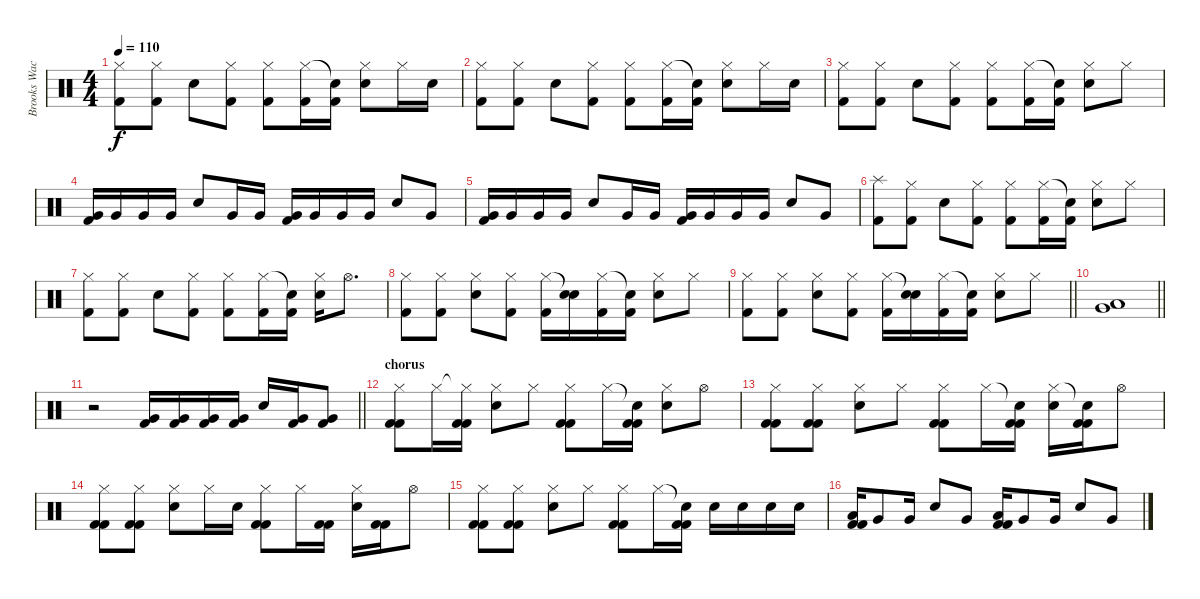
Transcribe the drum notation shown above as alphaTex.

\track ("Brooks Wackerman" "Brooks Wac") {instrument percussion}
\staff {score}
\articulation defaults
\ts (4 4)
\tempo 110
\clef neutral
\ks c
("Hi-Hat (closed)" "Kick (hit) 2").8{dy f} ("Hi-Hat (closed)" "Kick (hit) 2").8 "Snare (hit) 2".8 ("Hi-Hat (closed)" "Kick (hit) 2").8 ("Hi-Hat (closed)" "Kick (hit) 2").8 ("Hi-Hat (closed)" "Kick (hit) 2").16 ("Snare (hit)"{t} "Kick (hit) 2").16 ("Hi-Hat (closed)" "Snare (hit) 2").8 "Hi-Hat (closed)".16 "Snare (hit) 2".16 |
("Hi-Hat (closed)" "Kick (hit) 2").8 ("Hi-Hat (closed)" "Kick (hit) 2").8 "Snare (hit) 2".8 ("Hi-Hat (closed)" "Kick (hit) 2").8 ("Hi-Hat (closed)" "Kick (hit) 2").8 ("Hi-Hat (closed)" "Kick (hit) 2").16 ("Snare (hit)"{t} "Kick (hit) 2").16 ("Hi-Hat (closed)" "Snare (hit) 2").8 "Hi-Hat (closed)".16 "Snare (hit) 2".16 |
("Hi-Hat (closed)" "Kick (hit) 2").8 ("Hi-Hat (closed)" "Kick (hit) 2").8 "Snare (hit) 2".8 ("Hi-Hat (closed)" "Kick (hit) 2").8 ("Hi-Hat (closed)" "Kick (hit) 2").8 ("Hi-Hat (closed)" "Kick (hit) 2").16 ("Snare (hit)"{t} "Kick (hit) 2").16 ("Hi-Hat (closed)" "Snare (hit) 2").8 "Hi-Hat (closed)".8 |
("Very Low Tom (hit)" "Kick (hit) 2").16 "Very Low Tom (hit)".16 "Very Low Tom (hit)".16 "Very Low Tom (hit)".16 "Snare (hit) 2".8 "Very Low Tom (hit)".16 "Very Low Tom (hit)".16 ("Very Low Tom (hit)" "Kick (hit) 2").16 "Very Low Tom (hit)".16 "Very Low Tom (hit)".16 "Very Low Tom (hit)".16 "Snare (hit) 2".8 "Very Low Tom (hit)".8 |
("Very Low Tom (hit)" "Kick (hit) 2").16 "Very Low Tom (hit)".16 "Very Low Tom (hit)".16 "Very Low Tom (hit)".16 "Snare (hit) 2".8 "Very Low Tom (hit)".16 "Very Low Tom (hit)".16 ("Very Low Tom (hit)" "Kick (hit) 2").16 "Very Low Tom (hit)".16 "Very Low Tom (hit)".16 "Very Low Tom (hit)".16 "Snare (hit) 2".8 "Very Low Tom (hit)".8 |
("Splash (hit)" "Kick (hit) 2").8 ("Hi-Hat (closed)" "Kick (hit) 2").8 "Snare (hit) 2".8 ("Hi-Hat (closed)" "Kick (hit) 2").8 ("Hi-Hat (closed)" "Kick (hit) 2").8 ("Hi-Hat (closed)" "Kick (hit) 2").16 ("Snare (hit)"{t} "Kick (hit) 2").16 ("Hi-Hat (closed)" "Snare (hit) 2").8 "Hi-Hat (closed)".8 |
("Hi-Hat (closed)" "Kick (hit) 2").8 ("Hi-Hat (closed)" "Kick (hit) 2").8 "Snare (hit) 2".8 ("Hi-Hat (closed)" "Kick (hit) 2").8 ("Hi-Hat (closed)" "Kick (hit) 2").8 ("Hi-Hat (closed)" "Kick (hit) 2").16 ("Snare (hit)"{t} "Kick (hit) 2").16 ("Hi-Hat (closed)" "Snare (hit) 2").16 "Hi-Hat (open)".8{d} |
("Hi-Hat (closed)" "Kick (hit) 2").8 ("Hi-Hat (closed)" "Kick (hit) 2").8 ("Hi-Hat (closed)" "Snare (hit) 2").8 ("Hi-Hat (closed)" "Kick (hit) 2").8 ("Hi-Hat (closed)" "Kick (hit) 2").16 ("Snare (hit)"{t} "Snare (hit) 2").16 ("Hi-Hat (closed)" "Kick (hit) 2").16 ("Snare (hit)"{t} "Kick (hit) 2").16 ("Hi-Hat (closed)" "Snare (hit) 2").8 "Hi-Hat (closed)".8 |
\barLineRight lightlight
("Hi-Hat (closed)" "Kick (hit) 2").8 ("Hi-Hat (closed)" "Kick (hit) 2").8 ("Hi-Hat (closed)" "Snare (hit) 2").8 ("Hi-Hat (closed)" "Kick (hit) 2").8 ("Hi-Hat (closed)" "Kick (hit) 2").16 ("Snare (hit)"{t} "Snare (hit) 2").16 ("Hi-Hat (closed)" "Kick (hit) 2").16 ("Snare (hit)"{t} "Kick (hit) 2").16 ("Hi-Hat (closed)" "Snare (hit) 2").8 "Hi-Hat (closed)".8 |
\barLineRight lightlight
("Very Low Tom (hit)" "Low Floor Tom (hit)").1 |
\barLineRight lightlight
r.2 ("Very Low Tom (hit)" "Kick (hit) 2").16 ("Very Low Tom (hit)" "Kick (hit) 2").16 ("Very Low Tom (hit)" "Kick (hit) 2").16 ("Very Low Tom (hit)" "Kick (hit) 2").16 "Snare (hit) 2".16 ("Very Low Tom (hit)" "Kick (hit) 2").16 ("Very Low Tom (hit)" "Kick (hit) 2").8 |
\section ("" "chorus")
("Hi-Hat (closed)" "Kick (hit) 2" "Kick (hit) 2").8 "Hi-Hat (closed)".16 ("Hi-Hat (closed)"{t} "Kick (hit) 2" "Kick (hit) 2").16 ("Hi-Hat (closed)" "Snare (hit) 2").8 "Hi-Hat (closed)".8 ("Hi-Hat (closed)" "Kick (hit) 2" "Kick (hit) 2").8 "Hi-Hat (closed)".16 ("Snare (hit)"{t} "Kick (hit) 2" "Kick (hit) 2").16 ("Hi-Hat (closed)" "Snare (hit) 2").8 "Hi-Hat (open)".8 |
("Hi-Hat (closed)" "Kick (hit) 2" "Kick (hit) 2").8 ("Hi-Hat (closed)" "Kick (hit) 2" "Kick (hit) 2").8 ("Hi-Hat (closed)" "Snare (hit) 2").8 "Hi-Hat (closed)".8 ("Hi-Hat (closed)" "Kick (hit) 2" "Kick (hit) 2").8 "Hi-Hat (closed)".16 ("Snare (hit)"{t} "Kick (hit) 2" "Kick (hit) 2").16 ("Hi-Hat (closed)" "Snare (hit) 2").16 ("Snare (hit)"{t} "Kick (hit) 2" "Kick (hit) 2").16 "Hi-Hat (open)".8 |
("Hi-Hat (closed)" "Kick (hit) 2" "Kick (hit) 2").8 ("Hi-Hat (closed)" "Kick (hit) 2" "Kick (hit) 2").8 ("Hi-Hat (closed)" "Snare (hit) 2").8 "Hi-Hat (closed)".16 "Snare (hit) 2".16 ("Hi-Hat (closed)" "Kick (hit) 2" "Kick (hit) 2").8 "Hi-Hat (closed)".16 ("Kick (hit) 2" "Kick (hit) 2").16 ("Hi-Hat (closed)" "Snare (hit) 2").16 ("Kick (hit) 2" "Kick (hit) 2").16 "Hi-Hat (open)".8 |
("Hi-Hat (closed)" "Kick (hit) 2" "Kick (hit) 2").8 ("Hi-Hat (closed)" "Kick (hit) 2" "Kick (hit) 2").8 ("Hi-Hat (closed)" "Snare (hit) 2").8 "Hi-Hat (closed)".8 ("Hi-Hat (closed)" "Kick (hit) 2" "Kick (hit) 2").8 "Hi-Hat (closed)".16 ("Snare (hit)"{t} "Kick (hit) 2" "Kick (hit) 2").16 "Snare (hit) 2".16 "Snare (hit) 2".16 "Snare (hit) 2".16 "Snare (hit) 2".16 |
("Low Tom (hit)" "Kick (hit) 2" "Kick (hit) 2").16 "Very Low Tom (hit)".8 "Very Low Tom (hit)".16 "Snare (hit) 2".8 "Very Low Tom (hit)".8 ("Low Tom (hit)" "Kick (hit) 2" "Kick (hit) 2").16 "Very Low Tom (hit)".8 "Very Low Tom (hit)".16 "Snare (hit) 2".8 "Very Low Tom (hit)".8
